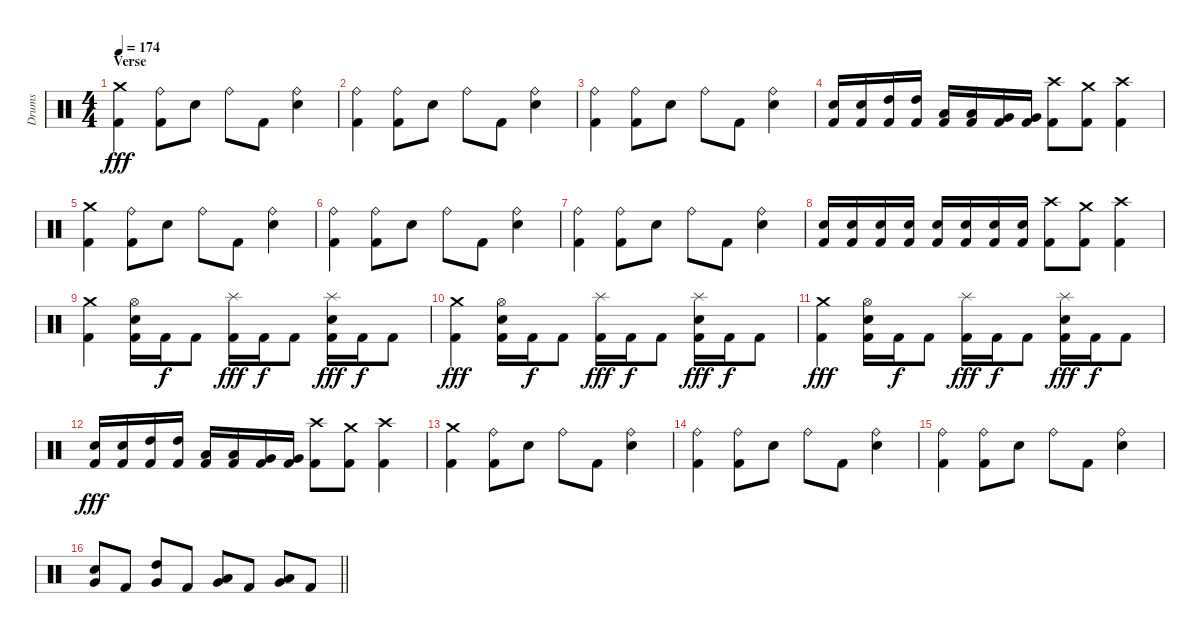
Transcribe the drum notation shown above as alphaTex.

\track ("Drums" "Drums") {instrument percussion}
\staff {score}
\articulation defaults
\ts (4 4)
\section ("" "Verse")
\tempo 174
\clef neutral
\ks c
("Crash medium (hit)" "Kick (hit) 2").4{dy fff} ("Ride (bell)" "Kick (hit) 2").8 "Snare (hit) 2".8 "Ride (bell)".8 "Kick (hit) 2".8 ("Ride (bell)" "Snare (hit) 2").4 |
("Ride (bell)" "Kick (hit) 2").4 ("Ride (bell)" "Kick (hit) 2").8 "Snare (hit) 2".8 "Ride (bell)".8 "Kick (hit) 2".8 ("Ride (bell)" "Snare (hit) 2").4 |
("Ride (bell)" "Kick (hit) 2").4 ("Ride (bell)" "Kick (hit) 2").8 "Snare (hit) 2".8 "Ride (bell)".8 "Kick (hit) 2".8 ("Ride (bell)" "Snare (hit) 2").4 |
("Snare (hit) 2" "Kick (hit) 2").16 ("Snare (hit) 2" "Kick (hit) 2").16 ("High Tom (hit)" "Kick (hit) 2").16 ("High Tom (hit)" "Kick (hit) 2").16 ("Low Tom (hit)" "Kick (hit) 2").16 ("Low Tom (hit)" "Kick (hit) 2").16 ("Very Low Tom (hit)" "Kick (hit) 2").16 ("Very Low Tom (hit)" "Kick (hit) 2").16 ("Crash high (hit)" "Kick (hit) 2").8 ("Crash medium (hit)" "Kick (hit) 2").8 ("Crash high (hit)" "Kick (hit) 2").4 |
("Crash medium (hit)" "Kick (hit) 2").4 ("Ride (bell)" "Kick (hit) 2").8 "Snare (hit) 2".8 "Ride (bell)".8 "Kick (hit) 2".8 ("Ride (bell)" "Snare (hit) 2").4 |
("Ride (bell)" "Kick (hit) 2").4 ("Ride (bell)" "Kick (hit) 2").8 "Snare (hit) 2".8 "Ride (bell)".8 "Kick (hit) 2".8 ("Ride (bell)" "Snare (hit) 2").4 |
("Ride (bell)" "Kick (hit) 2").4 ("Ride (bell)" "Kick (hit) 2").8 "Snare (hit) 2".8 "Ride (bell)".8 "Kick (hit) 2".8 ("Ride (bell)" "Snare (hit) 2").4 |
("Snare (hit) 2" "Kick (hit) 2").16 ("Snare (hit) 2" "Kick (hit) 2").16 ("Snare (hit) 2" "Kick (hit) 2").16 ("Snare (hit) 2" "Kick (hit) 2").16 ("Snare (hit) 2" "Kick (hit) 2").16 ("Snare (hit) 2" "Kick (hit) 2").16 ("Snare (hit) 2" "Kick (hit) 2").16 ("Snare (hit) 2" "Kick (hit) 2").16 ("Crash high (hit)" "Kick (hit) 2").8 ("Crash medium (hit)" "Kick (hit) 2").8 ("Crash high (hit)" "Kick (hit) 2").4 |
("Crash medium (hit)" "Kick (hit) 2").4 ("Hi-Hat (open)" "Snare (hit) 2" "Kick (hit) 2").16 "Kick (hit) 2".16{dy f} "Kick (hit) 2".8 ("Splash (hit)" "Kick (hit) 2").16{dy fff} "Kick (hit) 2".16{dy f} "Kick (hit) 2".8 ("Splash (hit)" "Snare (hit) 2" "Kick (hit) 2").16{dy fff} "Kick (hit) 2".16{dy f} "Kick (hit) 2".8 |
("Crash medium (hit)" "Kick (hit) 2").4{dy fff} ("Hi-Hat (open)" "Snare (hit) 2" "Kick (hit) 2").16 "Kick (hit) 2".16{dy f} "Kick (hit) 2".8 ("Splash (hit)" "Kick (hit) 2").16{dy fff} "Kick (hit) 2".16{dy f} "Kick (hit) 2".8 ("Splash (hit)" "Snare (hit) 2" "Kick (hit) 2").16{dy fff} "Kick (hit) 2".16{dy f} "Kick (hit) 2".8 |
("Crash medium (hit)" "Kick (hit) 2").4{dy fff} ("Hi-Hat (open)" "Snare (hit) 2" "Kick (hit) 2").16 "Kick (hit) 2".16{dy f} "Kick (hit) 2".8 ("Splash (hit)" "Kick (hit) 2").16{dy fff} "Kick (hit) 2".16{dy f} "Kick (hit) 2".8 ("Splash (hit)" "Snare (hit) 2" "Kick (hit) 2").16{dy fff} "Kick (hit) 2".16{dy f} "Kick (hit) 2".8 |
("Snare (hit) 2" "Kick (hit) 2").16{dy fff} ("Snare (hit) 2" "Kick (hit) 2").16 ("High Tom (hit)" "Kick (hit) 2").16 ("High Tom (hit)" "Kick (hit) 2").16 ("Low Tom (hit)" "Kick (hit) 2").16 ("Low Tom (hit)" "Kick (hit) 2").16 ("Very Low Tom (hit)" "Kick (hit) 2").16 ("Very Low Tom (hit)" "Kick (hit) 2").16 ("Crash high (hit)" "Kick (hit) 2").8 ("Crash medium (hit)" "Kick (hit) 2").8 ("Crash high (hit)" "Kick (hit) 2").4 |
("Crash medium (hit)" "Kick (hit) 2").4 ("Ride (bell)" "Kick (hit) 2").8 "Snare (hit) 2".8 "Ride (bell)".8 "Kick (hit) 2".8 ("Ride (bell)" "Snare (hit) 2").4 |
("Ride (bell)" "Kick (hit) 2").4 ("Ride (bell)" "Kick (hit) 2").8 "Snare (hit) 2".8 "Ride (bell)".8 "Kick (hit) 2".8 ("Ride (bell)" "Snare (hit) 2").4 |
("Ride (bell)" "Kick (hit) 2").4 ("Ride (bell)" "Kick (hit) 2").8 "Snare (hit) 2".8 "Ride (bell)".8 "Kick (hit) 2".8 ("Ride (bell)" "Snare (hit) 2").4 |
\barLineRight lightlight
("Snare (hit) 2" "Very Low Tom (hit)").8 "Kick (hit) 2".8 ("High Tom (hit)" "Very Low Tom (hit)").8 "Kick (hit) 2".8 ("Low Tom (hit)" "Very Low Tom (hit)").8 "Kick (hit) 2".8 ("Low Floor Tom (hit)" "Very Low Tom (hit)").8 "Kick (hit) 2".8
